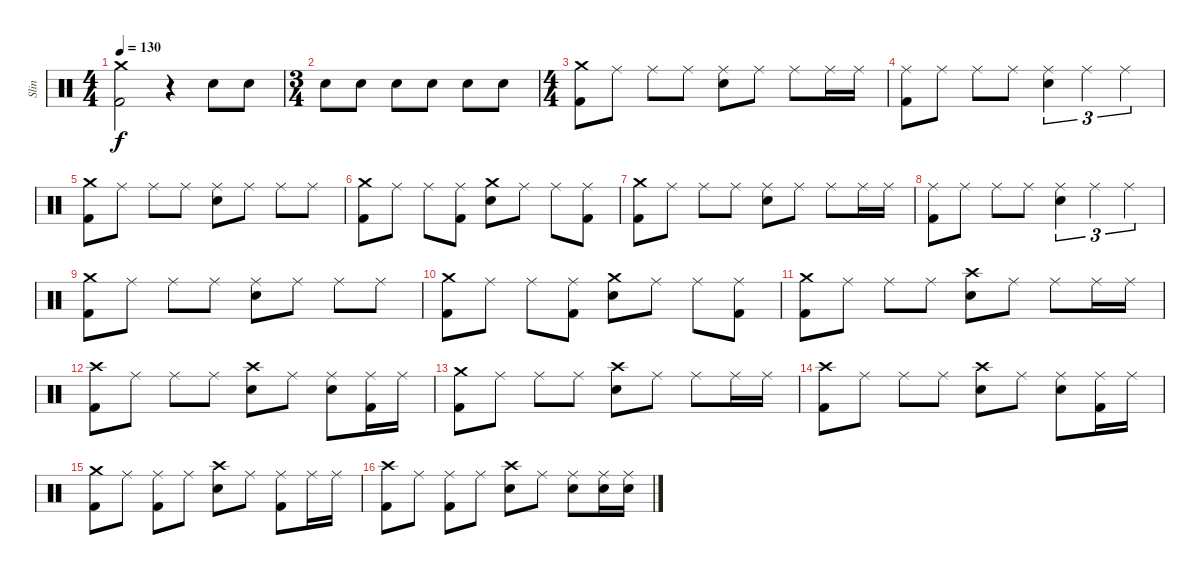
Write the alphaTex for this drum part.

\track ("Slin" "Slin") {instrument percussion}
\staff {score}
\articulation defaults
\ts (4 4)
\tempo 130
\clef neutral
\ks c
("Crash medium (hit)" "Kick (hit) 2").2{dy f} r.4{volume 0} "Snare (hit) 2".8{volume 13} "Snare (hit) 2".8 |
\ts (3 4)
"Snare (hit) 2".8 "Snare (hit) 2".8 "Snare (hit) 2".8 "Snare (hit) 2".8 "Snare (hit) 2".8 "Snare (hit) 2".8 |
\ts (4 4)
("Crash medium (hit)" "Kick (hit) 2").8 "Ride (middle)".8 "Ride (middle)".8 "Ride (middle)".8 ("Ride (middle)" "Snare (hit) 2").8 "Ride (middle)".8 "Ride (middle)".8 "Ride (middle)".16 "Ride (middle)".16 |
("Ride (middle)" "Kick (hit) 2").8 "Ride (middle)".8 "Ride (middle)".8 "Ride (middle)".8 ("Ride (middle)" "Snare (hit) 2").4{tu (3 2)} "Ride (middle)".4{tu (3 2)} "Ride (middle)".4{tu (3 2)} |
("Crash medium (hit)" "Kick (hit) 2").8 "Ride (middle)".8 "Ride (middle)".8 "Ride (middle)".8 ("Ride (middle)" "Snare (hit) 2").8 "Ride (middle)".8 "Ride (middle)".8 "Ride (middle)".8 |
("Crash medium (hit)" "Kick (hit) 2").8 "Ride (middle)".8 "Ride (middle)".8 ("Ride (middle)" "Kick (hit) 2").8 ("Crash medium (hit)" "Snare (hit) 2").8 "Ride (middle)".8 "Ride (middle)".8 ("Ride (middle)" "Kick (hit) 2").8 |
("Crash medium (hit)" "Kick (hit) 2").8 "Ride (middle)".8 "Ride (middle)".8 "Ride (middle)".8 ("Ride (middle)" "Snare (hit) 2").8 "Ride (middle)".8 "Ride (middle)".8 "Ride (middle)".16 "Ride (middle)".16 |
("Ride (middle)" "Kick (hit) 2").8 "Ride (middle)".8 "Ride (middle)".8 "Ride (middle)".8 ("Ride (middle)" "Snare (hit) 2").4{tu (3 2)} "Ride (middle)".4{tu (3 2)} "Ride (middle)".4{tu (3 2)} |
("Crash medium (hit)" "Kick (hit) 2").8 "Ride (middle)".8 "Ride (middle)".8 "Ride (middle)".8 ("Ride (middle)" "Snare (hit) 2").8 "Ride (middle)".8 "Ride (middle)".8 "Ride (middle)".8 |
("Crash medium (hit)" "Kick (hit) 2").8 "Ride (middle)".8 "Ride (middle)".8 ("Ride (middle)" "Kick (hit) 2").8 ("Crash medium (hit)" "Snare (hit) 2").8 "Ride (middle)".8 "Ride (middle)".8 ("Ride (middle)" "Kick (hit) 2").8 |
("Crash medium (hit)" "Kick (hit) 2").8 "Ride (middle)".8 "Ride (middle)".8 "Ride (middle)".8 ("Crash high (hit)" "Snare (hit) 2").8 "Ride (middle)".8 "Ride (middle)".8 "Ride (middle)".16 "Ride (middle)".16 |
("Crash high (hit)" "Kick (hit) 2").8 "Ride (middle)".8 "Ride (middle)".8 "Ride (middle)".8 ("Crash high (hit)" "Snare (hit) 2").8 "Ride (middle)".8 ("Ride (middle)" "Snare (hit) 2").8 ("Ride (middle)" "Kick (hit) 2").16 "Ride (middle)".16 |
("Crash medium (hit)" "Kick (hit) 2").8 "Ride (middle)".8 "Ride (middle)".8 "Ride (middle)".8 ("Crash high (hit)" "Snare (hit) 2").8 "Ride (middle)".8 "Ride (middle)".8 "Ride (middle)".16 "Ride (middle)".16 |
("Crash high (hit)" "Kick (hit) 2").8 "Ride (middle)".8 "Ride (middle)".8 "Ride (middle)".8 ("Crash high (hit)" "Snare (hit) 2").8 "Ride (middle)".8 ("Ride (middle)" "Snare (hit) 2").8 ("Ride (middle)" "Kick (hit) 2").16 "Ride (middle)".16 |
("Crash medium (hit)" "Kick (hit) 2").8 "Ride (middle)".8 ("Ride (middle)" "Kick (hit) 2").8 "Ride (middle)".8 ("Crash high (hit)" "Snare (hit) 2").8 "Ride (middle)".8 ("Ride (middle)" "Kick (hit) 2").8 "Ride (middle)".16 "Ride (middle)".16 |
("Crash high (hit)" "Kick (hit) 2").8 "Ride (middle)".8 ("Ride (middle)" "Kick (hit) 2").8 "Ride (middle)".8 ("Crash high (hit)" "Snare (hit) 2").8 "Ride (middle)".8 ("Ride (middle)" "Snare (hit) 2").8 ("Ride (middle)" "Snare (hit) 2").16 ("Ride (middle)" "Snare (hit) 2").16
